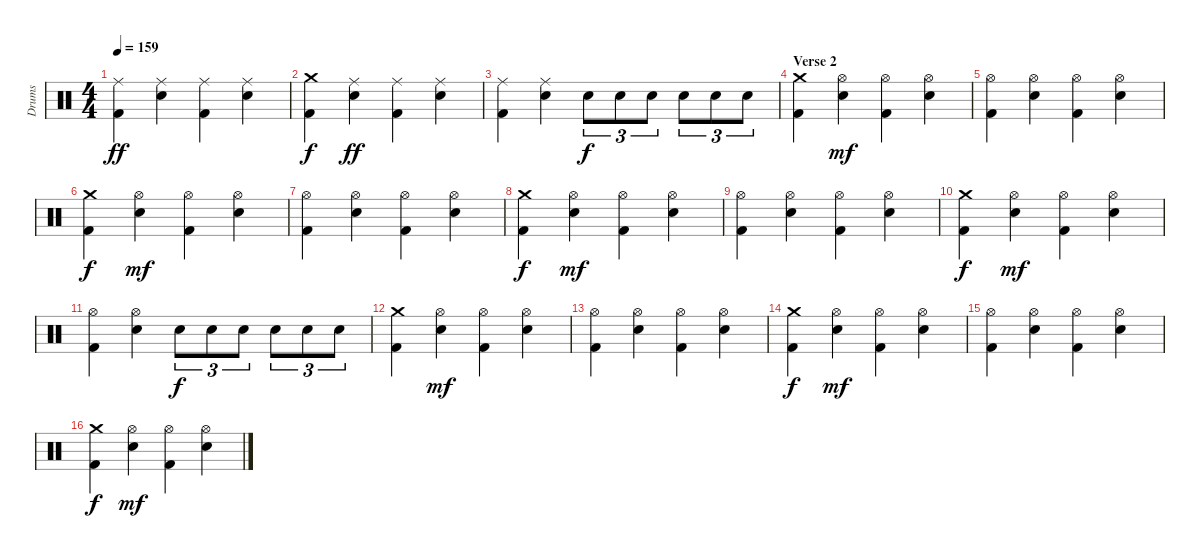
\track ("Drums" "Drums") {instrument percussion}
\staff {score}
\articulation defaults
\ts (4 4)
\tempo 159
\clef neutral
\ks c
("Ride (middle)" "Kick (hit) 2").4{dy ff} ("Ride (middle)" "Snare (hit) 2").4 ("Ride (middle)" "Kick (hit) 2").4 ("Ride (middle)" "Snare (hit) 2").4 |
("Crash medium (hit)" "Kick (hit) 2").4{dy f} ("Ride (middle)" "Snare (hit) 2").4{dy ff} ("Ride (middle)" "Kick (hit) 2").4 ("Ride (middle)" "Snare (hit) 2").4 |
("Ride (middle)" "Kick (hit) 2").4 ("Ride (middle)" "Snare (hit) 2").4 "Snare (hit) 2".8{tu (3 2) dy f} "Snare (hit) 2".8{tu (3 2)} "Snare (hit) 2".8{tu (3 2)} "Snare (hit) 2".8{tu (3 2)} "Snare (hit) 2".8{tu (3 2)} "Snare (hit) 2".8{tu (3 2)} |
\section ("" "Verse 2")
("Crash medium (hit)" "Kick (hit) 2").4 ("Hi-Hat (open)" "Snare (hit) 2").4{dy mf} ("Hi-Hat (open)" "Kick (hit) 2").4 ("Hi-Hat (open)" "Snare (hit) 2").4 |
("Hi-Hat (open)" "Kick (hit) 2").4 ("Hi-Hat (open)" "Snare (hit) 2").4 ("Hi-Hat (open)" "Kick (hit) 2").4 ("Hi-Hat (open)" "Snare (hit) 2").4 |
("Crash medium (hit)" "Kick (hit) 2").4{dy f} ("Hi-Hat (open)" "Snare (hit) 2").4{dy mf} ("Hi-Hat (open)" "Kick (hit) 2").4 ("Hi-Hat (open)" "Snare (hit) 2").4 |
("Hi-Hat (open)" "Kick (hit) 2").4 ("Hi-Hat (open)" "Snare (hit) 2").4 ("Hi-Hat (open)" "Kick (hit) 2").4 ("Hi-Hat (open)" "Snare (hit) 2").4 |
("Crash medium (hit)" "Kick (hit) 2").4{dy f} ("Hi-Hat (open)" "Snare (hit) 2").4{dy mf} ("Hi-Hat (open)" "Kick (hit) 2").4 ("Hi-Hat (open)" "Snare (hit) 2").4 |
("Hi-Hat (open)" "Kick (hit) 2").4 ("Hi-Hat (open)" "Snare (hit) 2").4 ("Hi-Hat (open)" "Kick (hit) 2").4 ("Hi-Hat (open)" "Snare (hit) 2").4 |
("Crash medium (hit)" "Kick (hit) 2").4{dy f} ("Hi-Hat (open)" "Snare (hit) 2").4{dy mf} ("Hi-Hat (open)" "Kick (hit) 2").4 ("Hi-Hat (open)" "Snare (hit) 2").4 |
("Hi-Hat (open)" "Kick (hit) 2").4 ("Hi-Hat (open)" "Snare (hit) 2").4 "Snare (hit) 2".8{tu (3 2) dy f} "Snare (hit) 2".8{tu (3 2)} "Snare (hit) 2".8{tu (3 2)} "Snare (hit) 2".8{tu (3 2)} "Snare (hit) 2".8{tu (3 2)} "Snare (hit) 2".8{tu (3 2)} |
("Crash medium (hit)" "Kick (hit) 2").4 ("Hi-Hat (open)" "Snare (hit) 2").4{dy mf} ("Hi-Hat (open)" "Kick (hit) 2").4 ("Hi-Hat (open)" "Snare (hit) 2").4 |
("Hi-Hat (open)" "Kick (hit) 2").4 ("Hi-Hat (open)" "Snare (hit) 2").4 ("Hi-Hat (open)" "Kick (hit) 2").4 ("Hi-Hat (open)" "Snare (hit) 2").4 |
("Crash medium (hit)" "Kick (hit) 2").4{dy f} ("Hi-Hat (open)" "Snare (hit) 2").4{dy mf} ("Hi-Hat (open)" "Kick (hit) 2").4 ("Hi-Hat (open)" "Snare (hit) 2").4 |
("Hi-Hat (open)" "Kick (hit) 2").4 ("Hi-Hat (open)" "Snare (hit) 2").4 ("Hi-Hat (open)" "Kick (hit) 2").4 ("Hi-Hat (open)" "Snare (hit) 2").4 |
("Crash medium (hit)" "Kick (hit) 2").4{dy f} ("Hi-Hat (open)" "Snare (hit) 2").4{dy mf} ("Hi-Hat (open)" "Kick (hit) 2").4 ("Hi-Hat (open)" "Snare (hit) 2").4
